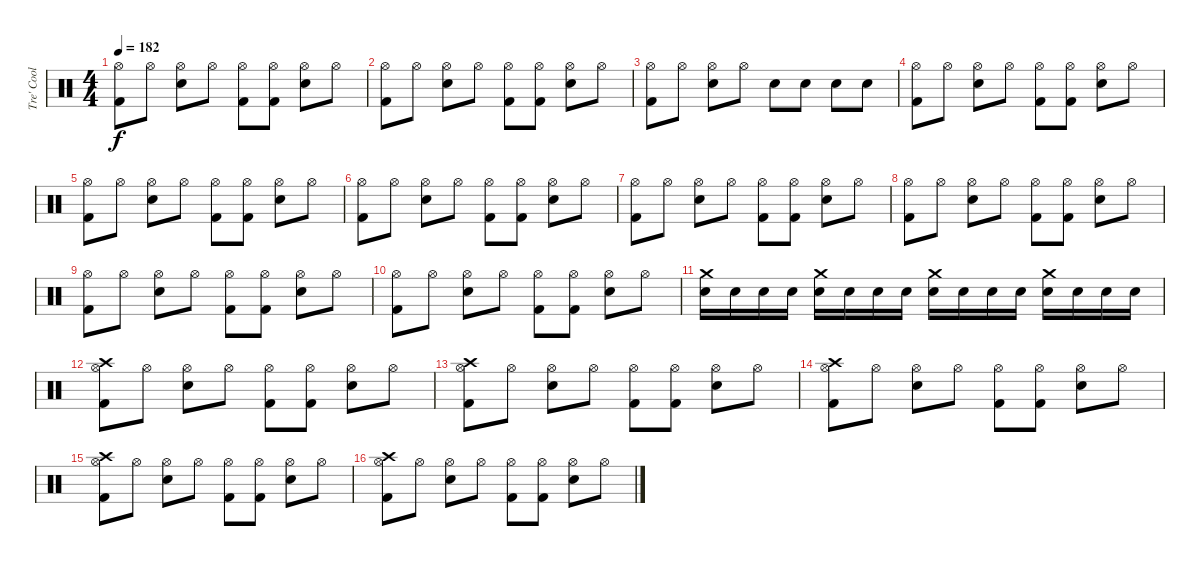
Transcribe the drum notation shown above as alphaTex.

\track ("Tre' Cool (DRUMS)!!!!!!!!!" "Tre' Cool ") {instrument percussion}
\staff {score}
\articulation defaults
\ts (4 4)
\tempo 182
\clef neutral
\ks c
("Hi-Hat (open)" "Kick (hit) 2").8{dy f} "Hi-Hat (open)".8 ("Hi-Hat (open)" "Snare (hit) 2").8 "Hi-Hat (open)".8 ("Hi-Hat (open)" "Kick (hit) 2").8 ("Hi-Hat (open)" "Kick (hit) 2").8 ("Hi-Hat (open)" "Snare (hit) 2").8 "Hi-Hat (open)".8 |
("Hi-Hat (open)" "Kick (hit) 2").8 "Hi-Hat (open)".8 ("Hi-Hat (open)" "Snare (hit) 2").8 "Hi-Hat (open)".8 ("Hi-Hat (open)" "Kick (hit) 2").8 ("Hi-Hat (open)" "Kick (hit) 2").8 ("Hi-Hat (open)" "Snare (hit) 2").8 "Hi-Hat (open)".8 |
("Hi-Hat (open)" "Kick (hit) 2").8 "Hi-Hat (open)".8 ("Hi-Hat (open)" "Snare (hit) 2").8 "Hi-Hat (open)".8 "Snare (hit) 2".8 "Snare (hit) 2".8 "Snare (hit) 2".8 "Snare (hit) 2".8 |
("Hi-Hat (open)" "Kick (hit) 2").8 "Hi-Hat (open)".8 ("Hi-Hat (open)" "Snare (hit) 2").8 "Hi-Hat (open)".8 ("Hi-Hat (open)" "Kick (hit) 2").8 ("Hi-Hat (open)" "Kick (hit) 2").8 ("Hi-Hat (open)" "Snare (hit) 2").8 "Hi-Hat (open)".8 |
("Hi-Hat (open)" "Kick (hit) 2").8 "Hi-Hat (open)".8 ("Hi-Hat (open)" "Snare (hit) 2").8 "Hi-Hat (open)".8 ("Hi-Hat (open)" "Kick (hit) 2").8 ("Hi-Hat (open)" "Kick (hit) 2").8 ("Hi-Hat (open)" "Snare (hit) 2").8 "Hi-Hat (open)".8 |
("Hi-Hat (open)" "Kick (hit) 2").8 "Hi-Hat (open)".8 ("Hi-Hat (open)" "Snare (hit) 2").8 "Hi-Hat (open)".8 ("Hi-Hat (open)" "Kick (hit) 2").8 ("Hi-Hat (open)" "Kick (hit) 2").8 ("Hi-Hat (open)" "Snare (hit) 2").8 "Hi-Hat (open)".8 |
("Hi-Hat (open)" "Kick (hit) 2").8 "Hi-Hat (open)".8 ("Hi-Hat (open)" "Snare (hit) 2").8 "Hi-Hat (open)".8 ("Hi-Hat (open)" "Kick (hit) 2").8 ("Hi-Hat (open)" "Kick (hit) 2").8 ("Hi-Hat (open)" "Snare (hit) 2").8 "Hi-Hat (open)".8 |
("Hi-Hat (open)" "Kick (hit) 2").8 "Hi-Hat (open)".8 ("Hi-Hat (open)" "Snare (hit) 2").8 "Hi-Hat (open)".8 ("Hi-Hat (open)" "Kick (hit) 2").8 ("Hi-Hat (open)" "Kick (hit) 2").8 ("Hi-Hat (open)" "Snare (hit) 2").8 "Hi-Hat (open)".8 |
("Hi-Hat (open)" "Kick (hit) 2").8 "Hi-Hat (open)".8 ("Hi-Hat (open)" "Snare (hit) 2").8 "Hi-Hat (open)".8 ("Hi-Hat (open)" "Kick (hit) 2").8 ("Hi-Hat (open)" "Kick (hit) 2").8 ("Hi-Hat (open)" "Snare (hit) 2").8 "Hi-Hat (open)".8 |
("Hi-Hat (open)" "Kick (hit) 2").8 "Hi-Hat (open)".8 ("Hi-Hat (open)" "Snare (hit) 2").8 "Hi-Hat (open)".8 ("Hi-Hat (open)" "Kick (hit) 2").8 ("Hi-Hat (open)" "Kick (hit) 2").8 ("Hi-Hat (open)" "Snare (hit) 2").8 "Hi-Hat (open)".8 |
("Crash medium (hit)" "Snare (hit) 2").16 "Snare (hit) 2".16 "Snare (hit) 2".16 "Snare (hit) 2".16 ("Crash medium (hit)" "Snare (hit) 2").16 "Snare (hit) 2".16 "Snare (hit) 2".16 "Snare (hit) 2".16 ("Crash medium (hit)" "Snare (hit) 2").16 "Snare (hit) 2".16 "Snare (hit) 2".16 "Snare (hit) 2".16 ("Crash medium (hit)" "Snare (hit) 2").16 "Snare (hit) 2".16 "Snare (hit) 2".16 "Snare (hit) 2".16 |
("Crash high (hit)" "Hi-Hat (open)" "Kick (hit) 2").8 "Hi-Hat (open)".8 ("Hi-Hat (open)" "Snare (hit) 2").8 "Hi-Hat (open)".8 ("Hi-Hat (open)" "Kick (hit) 2").8 ("Hi-Hat (open)" "Kick (hit) 2").8 ("Hi-Hat (open)" "Snare (hit) 2").8 "Hi-Hat (open)".8 |
("Crash high (hit)" "Hi-Hat (open)" "Kick (hit) 2").8 "Hi-Hat (open)".8 ("Hi-Hat (open)" "Snare (hit) 2").8 "Hi-Hat (open)".8 ("Hi-Hat (open)" "Kick (hit) 2").8 ("Hi-Hat (open)" "Kick (hit) 2").8 ("Hi-Hat (open)" "Snare (hit) 2").8 "Hi-Hat (open)".8 |
("Crash high (hit)" "Hi-Hat (open)" "Kick (hit) 2").8 "Hi-Hat (open)".8 ("Hi-Hat (open)" "Snare (hit) 2").8 "Hi-Hat (open)".8 ("Hi-Hat (open)" "Kick (hit) 2").8 ("Hi-Hat (open)" "Kick (hit) 2").8 ("Hi-Hat (open)" "Snare (hit) 2").8 "Hi-Hat (open)".8 |
("Crash high (hit)" "Hi-Hat (open)" "Kick (hit) 2").8 "Hi-Hat (open)".8 ("Hi-Hat (open)" "Snare (hit) 2").8 "Hi-Hat (open)".8 ("Hi-Hat (open)" "Kick (hit) 2").8 ("Hi-Hat (open)" "Kick (hit) 2").8 ("Hi-Hat (open)" "Snare (hit) 2").8 "Hi-Hat (open)".8 |
("Crash high (hit)" "Hi-Hat (open)" "Kick (hit) 2").8 "Hi-Hat (open)".8 ("Hi-Hat (open)" "Snare (hit) 2").8 "Hi-Hat (open)".8 ("Hi-Hat (open)" "Kick (hit) 2").8 ("Hi-Hat (open)" "Kick (hit) 2").8 ("Hi-Hat (open)" "Snare (hit) 2").8 "Hi-Hat (open)".8
